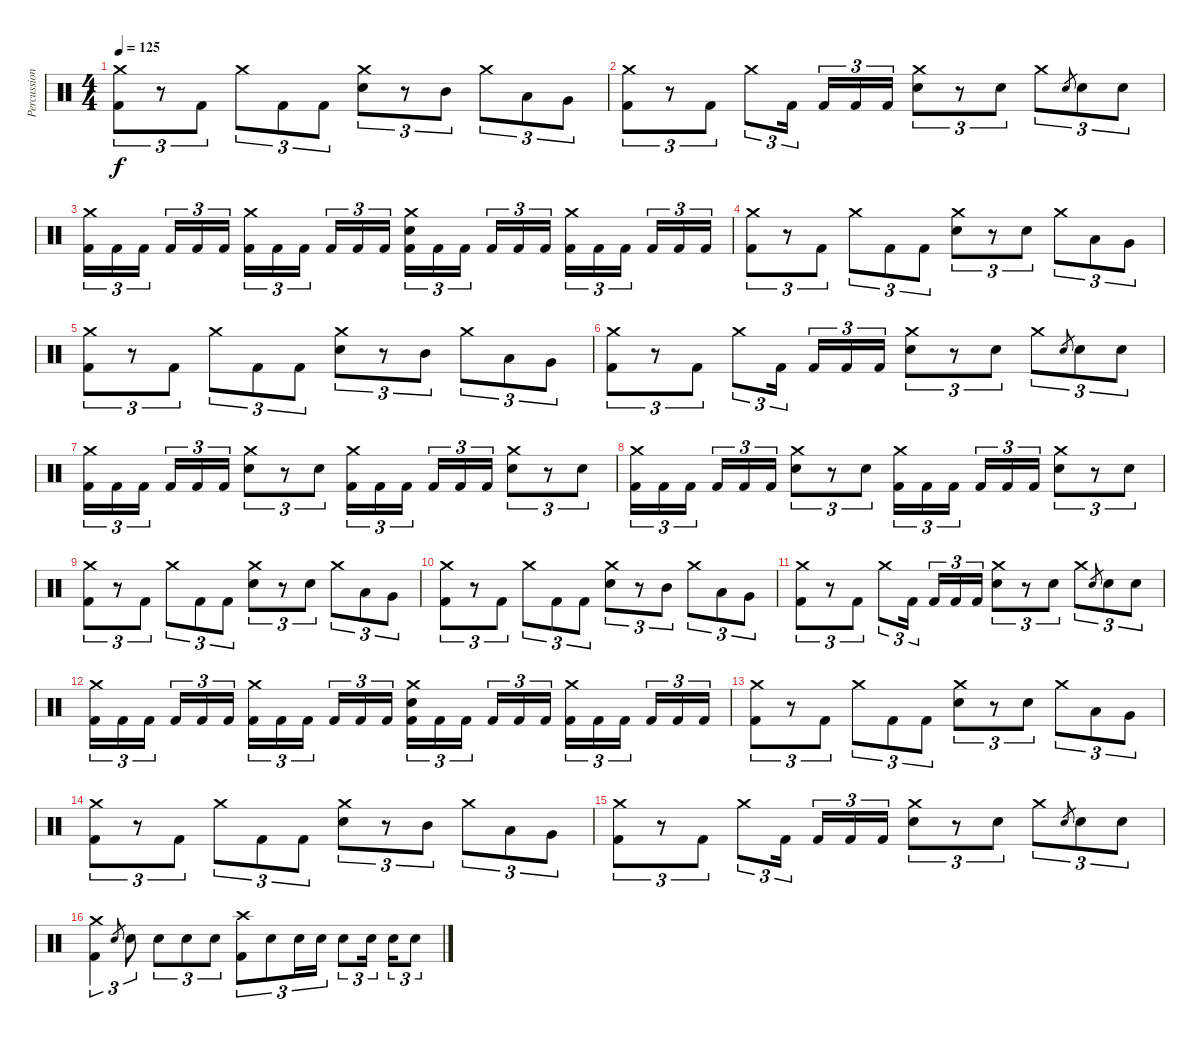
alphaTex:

\track ("Percussion" "Percussion") {instrument percussion}
\staff {score}
\articulation defaults
\ts (4 4)
\tempo 125
\clef neutral
\ks c
("Crash medium (hit)" "Kick (hit) 2").8{tu (3 2) dy f} r.8{tu (3 2)} "Kick (hit) 2".8{tu (3 2)} "Crash medium (hit)".8{tu (3 2)} "Kick (hit) 2".8{tu (3 2)} "Kick (hit) 2".8{tu (3 2)} ("Crash medium (hit)" "Electric Snare (hit)").8{tu (3 2)} r.8{tu (3 2)} "Mid Tom (hit)".8{tu (3 2)} "Crash medium (hit)".8{tu (3 2)} "Low Tom (hit)".8{tu (3 2)} "Very Low Tom (hit)".8{tu (3 2)} |
("Crash medium (hit)" "Kick (hit) 2").8{tu (3 2)} r.8{tu (3 2)} "Kick (hit) 2".8{tu (3 2)} "Crash medium (hit)".8{tu (3 2)} "Kick (hit) 2".16{tu (3 2)} "Kick (hit) 2".16{tu (3 2)} "Kick (hit) 2".16{tu (3 2)} "Kick (hit) 2".16{tu (3 2)} ("Crash medium (hit)" "Electric Snare (hit)").8{tu (3 2)} r.8{tu (3 2)} "Electric Snare (hit)".8{tu (3 2)} "Crash medium (hit)".8{tu (3 2)} "Electric Snare (hit)".8{gr} "Electric Snare (hit)".8{tu (3 2)} "Electric Snare (hit)".8{tu (3 2)} |
("Crash medium (hit)" "Kick (hit) 2").16{tu (3 2)} "Kick (hit) 2".16{tu (3 2)} "Kick (hit) 2".16{tu (3 2)} "Kick (hit) 2".16{tu (3 2)} "Kick (hit) 2".16{tu (3 2)} "Kick (hit) 2".16{tu (3 2)} ("Crash medium (hit)" "Kick (hit) 2").16{tu (3 2)} "Kick (hit) 2".16{tu (3 2)} "Kick (hit) 2".16{tu (3 2)} "Kick (hit) 2".16{tu (3 2)} "Kick (hit) 2".16{tu (3 2)} "Kick (hit) 2".16{tu (3 2)} ("Crash medium (hit)" "Electric Snare (hit)" "Kick (hit) 2").16{tu (3 2)} "Kick (hit) 2".16{tu (3 2)} "Kick (hit) 2".16{tu (3 2)} "Kick (hit) 2".16{tu (3 2)} "Kick (hit) 2".16{tu (3 2)} "Kick (hit) 2".16{tu (3 2)} ("Crash medium (hit)" "Kick (hit) 2").16{tu (3 2)} "Kick (hit) 2".16{tu (3 2)} "Kick (hit) 2".16{tu (3 2)} "Kick (hit) 2".16{tu (3 2)} "Kick (hit) 2".16{tu (3 2)} "Kick (hit) 2".16{tu (3 2)} |
("Crash medium (hit)" "Kick (hit) 2").8{tu (3 2)} r.8{tu (3 2)} "Kick (hit) 2".8{tu (3 2)} "Crash medium (hit)".8{tu (3 2)} "Kick (hit) 2".8{tu (3 2)} "Kick (hit) 2".8{tu (3 2)} ("Crash medium (hit)" "Electric Snare (hit)").8{tu (3 2)} r.8{tu (3 2)} "Electric Snare (hit)".8{tu (3 2)} "Crash medium (hit)".8{tu (3 2)} "Low Tom (hit)".8{tu (3 2)} "Very Low Tom (hit)".8{tu (3 2)} |
("Crash medium (hit)" "Kick (hit) 2").8{tu (3 2)} r.8{tu (3 2)} "Kick (hit) 2".8{tu (3 2)} "Crash medium (hit)".8{tu (3 2)} "Kick (hit) 2".8{tu (3 2)} "Kick (hit) 2".8{tu (3 2)} ("Crash medium (hit)" "Electric Snare (hit)").8{tu (3 2)} r.8{tu (3 2)} "Mid Tom (hit)".8{tu (3 2)} "Crash medium (hit)".8{tu (3 2)} "Low Tom (hit)".8{tu (3 2)} "Very Low Tom (hit)".8{tu (3 2)} |
("Crash medium (hit)" "Kick (hit) 2").8{tu (3 2)} r.8{tu (3 2)} "Kick (hit) 2".8{tu (3 2)} "Crash medium (hit)".8{tu (3 2)} "Kick (hit) 2".16{tu (3 2)} "Kick (hit) 2".16{tu (3 2)} "Kick (hit) 2".16{tu (3 2)} "Kick (hit) 2".16{tu (3 2)} ("Crash medium (hit)" "Electric Snare (hit)").8{tu (3 2)} r.8{tu (3 2)} "Electric Snare (hit)".8{tu (3 2)} "Crash medium (hit)".8{tu (3 2)} "Electric Snare (hit)".8{gr} "Electric Snare (hit)".8{tu (3 2)} "Electric Snare (hit)".8{tu (3 2)} |
("Crash medium (hit)" "Kick (hit) 2").16{tu (3 2)} "Kick (hit) 2".16{tu (3 2)} "Kick (hit) 2".16{tu (3 2)} "Kick (hit) 2".16{tu (3 2)} "Kick (hit) 2".16{tu (3 2)} "Kick (hit) 2".16{tu (3 2)} ("Crash medium (hit)" "Electric Snare (hit)").8{tu (3 2)} r.8{tu (3 2)} "Electric Snare (hit)".8{tu (3 2)} ("Crash medium (hit)" "Kick (hit) 2").16{tu (3 2)} "Kick (hit) 2".16{tu (3 2)} "Kick (hit) 2".16{tu (3 2)} "Kick (hit) 2".16{tu (3 2)} "Kick (hit) 2".16{tu (3 2)} "Kick (hit) 2".16{tu (3 2)} ("Crash medium (hit)" "Electric Snare (hit)").8{tu (3 2)} r.8{tu (3 2)} "Electric Snare (hit)".8{tu (3 2)} |
("Crash medium (hit)" "Kick (hit) 2").16{tu (3 2)} "Kick (hit) 2".16{tu (3 2)} "Kick (hit) 2".16{tu (3 2)} "Kick (hit) 2".16{tu (3 2)} "Kick (hit) 2".16{tu (3 2)} "Kick (hit) 2".16{tu (3 2)} ("Crash medium (hit)" "Electric Snare (hit)").8{tu (3 2)} r.8{tu (3 2)} "Electric Snare (hit)".8{tu (3 2)} ("Crash medium (hit)" "Kick (hit) 2").16{tu (3 2)} "Kick (hit) 2".16{tu (3 2)} "Kick (hit) 2".16{tu (3 2)} "Kick (hit) 2".16{tu (3 2)} "Kick (hit) 2".16{tu (3 2)} "Kick (hit) 2".16{tu (3 2)} ("Crash medium (hit)" "Electric Snare (hit)").8{tu (3 2)} r.8{tu (3 2)} "Electric Snare (hit)".8{tu (3 2)} |
("Crash medium (hit)" "Kick (hit) 2").8{tu (3 2)} r.8{tu (3 2)} "Kick (hit) 2".8{tu (3 2)} "Crash medium (hit)".8{tu (3 2)} "Kick (hit) 2".8{tu (3 2)} "Kick (hit) 2".8{tu (3 2)} ("Crash medium (hit)" "Electric Snare (hit)").8{tu (3 2)} r.8{tu (3 2)} "Electric Snare (hit)".8{tu (3 2)} "Crash medium (hit)".8{tu (3 2)} "Low Tom (hit)".8{tu (3 2)} "Very Low Tom (hit)".8{tu (3 2)} |
("Crash medium (hit)" "Kick (hit) 2").8{tu (3 2)} r.8{tu (3 2)} "Kick (hit) 2".8{tu (3 2)} "Crash medium (hit)".8{tu (3 2)} "Kick (hit) 2".8{tu (3 2)} "Kick (hit) 2".8{tu (3 2)} ("Crash medium (hit)" "Electric Snare (hit)").8{tu (3 2)} r.8{tu (3 2)} "Mid Tom (hit)".8{tu (3 2)} "Crash medium (hit)".8{tu (3 2)} "Low Tom (hit)".8{tu (3 2)} "Very Low Tom (hit)".8{tu (3 2)} |
("Crash medium (hit)" "Kick (hit) 2").8{tu (3 2)} r.8{tu (3 2)} "Kick (hit) 2".8{tu (3 2)} "Crash medium (hit)".8{tu (3 2)} "Kick (hit) 2".16{tu (3 2)} "Kick (hit) 2".16{tu (3 2)} "Kick (hit) 2".16{tu (3 2)} "Kick (hit) 2".16{tu (3 2)} ("Crash medium (hit)" "Electric Snare (hit)").8{tu (3 2)} r.8{tu (3 2)} "Electric Snare (hit)".8{tu (3 2)} "Crash medium (hit)".8{tu (3 2)} "Electric Snare (hit)".8{gr} "Electric Snare (hit)".8{tu (3 2)} "Electric Snare (hit)".8{tu (3 2)} |
("Crash medium (hit)" "Kick (hit) 2").16{tu (3 2)} "Kick (hit) 2".16{tu (3 2)} "Kick (hit) 2".16{tu (3 2)} "Kick (hit) 2".16{tu (3 2)} "Kick (hit) 2".16{tu (3 2)} "Kick (hit) 2".16{tu (3 2)} ("Crash medium (hit)" "Kick (hit) 2").16{tu (3 2)} "Kick (hit) 2".16{tu (3 2)} "Kick (hit) 2".16{tu (3 2)} "Kick (hit) 2".16{tu (3 2)} "Kick (hit) 2".16{tu (3 2)} "Kick (hit) 2".16{tu (3 2)} ("Crash medium (hit)" "Electric Snare (hit)" "Kick (hit) 2").16{tu (3 2)} "Kick (hit) 2".16{tu (3 2)} "Kick (hit) 2".16{tu (3 2)} "Kick (hit) 2".16{tu (3 2)} "Kick (hit) 2".16{tu (3 2)} "Kick (hit) 2".16{tu (3 2)} ("Crash medium (hit)" "Kick (hit) 2").16{tu (3 2)} "Kick (hit) 2".16{tu (3 2)} "Kick (hit) 2".16{tu (3 2)} "Kick (hit) 2".16{tu (3 2)} "Kick (hit) 2".16{tu (3 2)} "Kick (hit) 2".16{tu (3 2)} |
("Crash medium (hit)" "Kick (hit) 2").8{tu (3 2)} r.8{tu (3 2)} "Kick (hit) 2".8{tu (3 2)} "Crash medium (hit)".8{tu (3 2)} "Kick (hit) 2".8{tu (3 2)} "Kick (hit) 2".8{tu (3 2)} ("Crash medium (hit)" "Electric Snare (hit)").8{tu (3 2)} r.8{tu (3 2)} "Electric Snare (hit)".8{tu (3 2)} "Crash medium (hit)".8{tu (3 2)} "Low Tom (hit)".8{tu (3 2)} "Very Low Tom (hit)".8{tu (3 2)} |
("Crash medium (hit)" "Kick (hit) 2").8{tu (3 2)} r.8{tu (3 2)} "Kick (hit) 2".8{tu (3 2)} "Crash medium (hit)".8{tu (3 2)} "Kick (hit) 2".8{tu (3 2)} "Kick (hit) 2".8{tu (3 2)} ("Crash medium (hit)" "Electric Snare (hit)").8{tu (3 2)} r.8{tu (3 2)} "Mid Tom (hit)".8{tu (3 2)} "Crash medium (hit)".8{tu (3 2)} "Low Tom (hit)".8{tu (3 2)} "Very Low Tom (hit)".8{tu (3 2)} |
("Crash medium (hit)" "Kick (hit) 2").8{tu (3 2)} r.8{tu (3 2)} "Kick (hit) 2".8{tu (3 2)} "Crash medium (hit)".8{tu (3 2)} "Kick (hit) 2".16{tu (3 2)} "Kick (hit) 2".16{tu (3 2)} "Kick (hit) 2".16{tu (3 2)} "Kick (hit) 2".16{tu (3 2)} ("Crash medium (hit)" "Electric Snare (hit)").8{tu (3 2)} r.8{tu (3 2)} "Electric Snare (hit)".8{tu (3 2)} "Crash medium (hit)".8{tu (3 2)} "Electric Snare (hit)".8{gr} "Electric Snare (hit)".8{tu (3 2)} "Electric Snare (hit)".8{tu (3 2)} |
("Crash medium (hit)" "Kick (hit) 2").4{tu (3 2)} "Electric Snare (hit)".8{gr} "Electric Snare (hit)".8{tu (3 2)} "Electric Snare (hit)".8{tu (3 2)} "Electric Snare (hit)".8{tu (3 2)} "Electric Snare (hit)".8{tu (3 2)} ("Crash high (hit)" "Kick (hit) 2").8{tu (3 2)} "Electric Snare (hit)".8{tu (3 2)} "Electric Snare (hit)".16{tu (3 2)} "Electric Snare (hit)".16{tu (3 2)} "Electric Snare (hit)".8{tu (3 2)} "Electric Snare (hit)".16{tu (3 2)} "Electric Snare (hit)".16{tu (3 2)} "Electric Snare (hit)".8{tu (3 2)}
